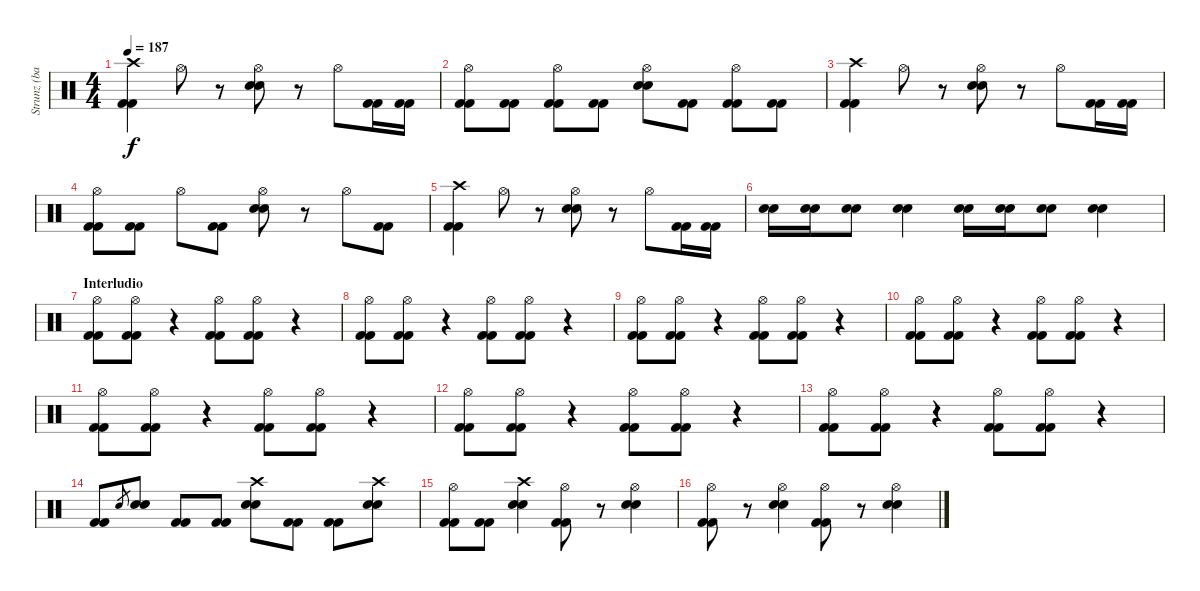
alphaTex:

\track ("Strunz (bateria)" "Strunz (ba") {instrument percussion}
\staff {score}
\articulation defaults
\ts (4 4)
\tempo 187
\clef neutral
\ks c
("Crash high (hit)" "Kick (hit) 2" "Kick (hit) 2").4{dy f} "Hi-Hat (open)".8 r.8 ("Hi-Hat (open)" "Snare (hit) 2" "Snare (hit) 2").8 r.8 "Hi-Hat (open)".8 ("Kick (hit) 2" "Kick (hit) 2").16 ("Kick (hit) 2" "Kick (hit) 2").16 |
("Hi-Hat (open)" "Kick (hit) 2" "Kick (hit) 2").8 ("Kick (hit) 2" "Kick (hit) 2").8 ("Hi-Hat (open)" "Kick (hit) 2" "Kick (hit) 2").8 ("Kick (hit) 2" "Kick (hit) 2").8 ("Hi-Hat (open)" "Snare (hit) 2" "Snare (hit) 2").8 ("Kick (hit) 2" "Kick (hit) 2").8 ("Hi-Hat (open)" "Kick (hit) 2" "Kick (hit) 2").8 ("Kick (hit) 2" "Kick (hit) 2").8 |
("Crash high (hit)" "Kick (hit) 2" "Kick (hit) 2").4 "Hi-Hat (open)".8 r.8 ("Hi-Hat (open)" "Snare (hit) 2" "Snare (hit) 2").8 r.8 "Hi-Hat (open)".8 ("Kick (hit) 2" "Kick (hit) 2").16 ("Kick (hit) 2" "Kick (hit) 2").16 |
("Hi-Hat (open)" "Kick (hit) 2" "Kick (hit) 2").8 ("Kick (hit) 2" "Kick (hit) 2").8 "Hi-Hat (open)".8 ("Kick (hit) 2" "Kick (hit) 2").8 ("Hi-Hat (open)" "Snare (hit) 2" "Snare (hit) 2").8 r.8 "Hi-Hat (open)".8 ("Kick (hit) 2" "Kick (hit) 2").8 |
("Crash high (hit)" "Kick (hit) 2" "Kick (hit) 2").4 "Hi-Hat (open)".8 r.8 ("Hi-Hat (open)" "Snare (hit) 2" "Snare (hit) 2").8 r.8 "Hi-Hat (open)".8 ("Kick (hit) 2" "Kick (hit) 2").16 ("Kick (hit) 2" "Kick (hit) 2").16 |
("Electric Snare (hit)" "Electric Snare (hit)").16 ("Electric Snare (hit)" "Electric Snare (hit)").16 ("Electric Snare (hit)" "Electric Snare (hit)").8 ("Electric Snare (hit)" "Electric Snare (hit)").4 ("Electric Snare (hit)" "Electric Snare (hit)").16 ("Electric Snare (hit)" "Electric Snare (hit)").16 ("Electric Snare (hit)" "Electric Snare (hit)").8 ("Electric Snare (hit)" "Electric Snare (hit)").4 |
\section ("" "Interludio")
("Hi-Hat (open)" "Kick (hit) 2" "Kick (hit) 2").8 ("Hi-Hat (open)" "Kick (hit) 2" "Kick (hit) 2").8 r.4 ("Hi-Hat (open)" "Kick (hit) 2" "Kick (hit) 2").8 ("Hi-Hat (open)" "Kick (hit) 2" "Kick (hit) 2").8 r.4 |
("Hi-Hat (open)" "Kick (hit) 2" "Kick (hit) 2").8 ("Hi-Hat (open)" "Kick (hit) 2" "Kick (hit) 2").8 r.4 ("Hi-Hat (open)" "Kick (hit) 2" "Kick (hit) 2").8 ("Hi-Hat (open)" "Kick (hit) 2" "Kick (hit) 2").8 r.4 |
("Hi-Hat (open)" "Kick (hit) 2" "Kick (hit) 2").8 ("Hi-Hat (open)" "Kick (hit) 2" "Kick (hit) 2").8 r.4 ("Hi-Hat (open)" "Kick (hit) 2" "Kick (hit) 2").8 ("Hi-Hat (open)" "Kick (hit) 2" "Kick (hit) 2").8 r.4 |
("Hi-Hat (open)" "Kick (hit) 2" "Kick (hit) 2").8 ("Hi-Hat (open)" "Kick (hit) 2" "Kick (hit) 2").8 r.4 ("Hi-Hat (open)" "Kick (hit) 2" "Kick (hit) 2").8 ("Hi-Hat (open)" "Kick (hit) 2" "Kick (hit) 2").8 r.4 |
("Hi-Hat (open)" "Kick (hit) 2" "Kick (hit) 2").8 ("Hi-Hat (open)" "Kick (hit) 2" "Kick (hit) 2").8 r.4 ("Hi-Hat (open)" "Kick (hit) 2" "Kick (hit) 2").8 ("Hi-Hat (open)" "Kick (hit) 2" "Kick (hit) 2").8 r.4 |
("Hi-Hat (open)" "Kick (hit) 2" "Kick (hit) 2").8 ("Hi-Hat (open)" "Kick (hit) 2" "Kick (hit) 2").8 r.4 ("Hi-Hat (open)" "Kick (hit) 2" "Kick (hit) 2").8 ("Hi-Hat (open)" "Kick (hit) 2" "Kick (hit) 2").8 r.4 |
("Hi-Hat (open)" "Kick (hit) 2" "Kick (hit) 2").8 ("Hi-Hat (open)" "Kick (hit) 2" "Kick (hit) 2").8 r.4 ("Hi-Hat (open)" "Kick (hit) 2" "Kick (hit) 2").8 ("Hi-Hat (open)" "Kick (hit) 2" "Kick (hit) 2").8 r.4 |
("Kick (hit) 2" "Kick (hit) 2").8 "Snare (hit) 2".8{gr} ("Snare (hit) 2" "Snare (hit) 2").8 ("Kick (hit) 2" "Kick (hit) 2").8 ("Kick (hit) 2" "Kick (hit) 2").8 ("Crash high (hit)" "Snare (hit) 2" "Snare (hit) 2").8 ("Kick (hit) 2" "Kick (hit) 2").8 ("Kick (hit) 2" "Kick (hit) 2").8 ("Crash high (hit)" "Snare (hit) 2" "Snare (hit) 2").8 |
("Hi-Hat (open)" "Kick (hit) 2" "Kick (hit) 2").8 ("Kick (hit) 2" "Kick (hit) 2").8 ("Crash high (hit)" "Snare (hit) 2" "Snare (hit) 2").4 ("Hi-Hat (open)" "Kick (hit) 2" "Kick (hit) 2").8 r.8 ("Hi-Hat (open)" "Snare (hit) 2" "Snare (hit) 2").4 |
("Hi-Hat (open)" "Kick (hit) 2" "Kick (hit) 2").8 r.8 ("Hi-Hat (open)" "Snare (hit) 2" "Snare (hit) 2").4 ("Hi-Hat (open)" "Kick (hit) 2" "Kick (hit) 2").8 r.8 ("Hi-Hat (open)" "Snare (hit) 2" "Snare (hit) 2").4
